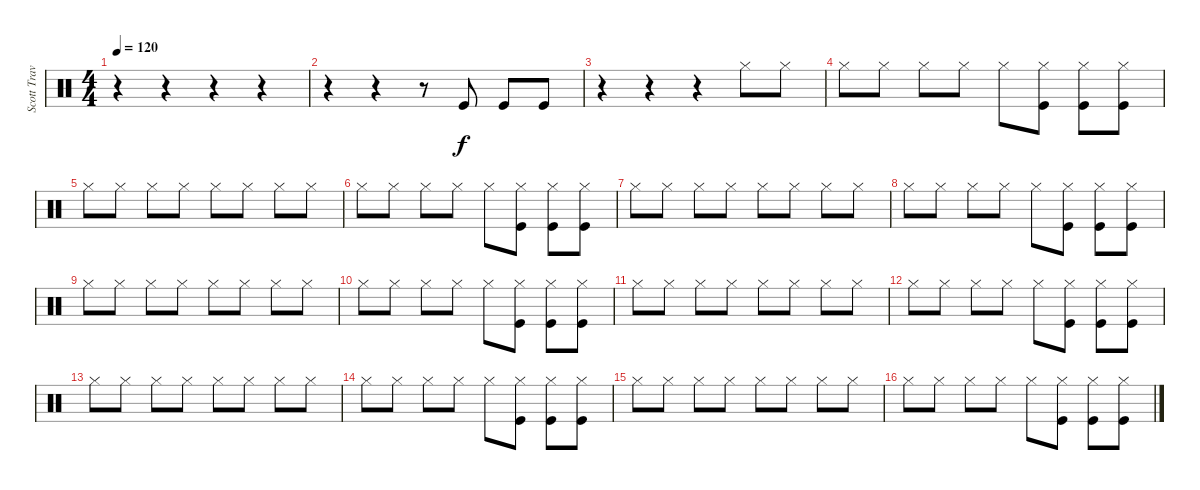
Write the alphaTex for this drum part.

\track ("Scott Travis" "Scott Trav") {instrument percussion}
\staff {score}
\articulation defaults
\ts (4 4)
\tempo 120
\clef neutral
\ks c
r.4{dy f} r.4 r.4 r.4 |
r.4 r.4 r.8 "Kick (hit)".8 "Kick (hit)".8 "Kick (hit)".8 |
r.4 r.4 r.4 "Hi-Hat (closed)".8 "Hi-Hat (closed)".8 |
"Hi-Hat (closed)".8 "Hi-Hat (closed)".8 "Hi-Hat (closed)".8 "Hi-Hat (closed)".8 "Hi-Hat (closed)".8 ("Kick (hit)" "Hi-Hat (closed)").8 ("Kick (hit)" "Hi-Hat (closed)").8 ("Kick (hit)" "Hi-Hat (closed)").8 |
"Hi-Hat (closed)".8 "Hi-Hat (closed)".8 "Hi-Hat (closed)".8 "Hi-Hat (closed)".8 "Hi-Hat (closed)".8 "Hi-Hat (closed)".8 "Hi-Hat (closed)".8 "Hi-Hat (closed)".8 |
"Hi-Hat (closed)".8 "Hi-Hat (closed)".8 "Hi-Hat (closed)".8 "Hi-Hat (closed)".8 "Hi-Hat (closed)".8 ("Kick (hit)" "Hi-Hat (closed)").8 ("Kick (hit)" "Hi-Hat (closed)").8 ("Kick (hit)" "Hi-Hat (closed)").8 |
"Hi-Hat (closed)".8 "Hi-Hat (closed)".8 "Hi-Hat (closed)".8 "Hi-Hat (closed)".8 "Hi-Hat (closed)".8 "Hi-Hat (closed)".8 "Hi-Hat (closed)".8 "Hi-Hat (closed)".8 |
"Hi-Hat (closed)".8 "Hi-Hat (closed)".8 "Hi-Hat (closed)".8 "Hi-Hat (closed)".8 "Hi-Hat (closed)".8 ("Kick (hit)" "Hi-Hat (closed)").8 ("Kick (hit)" "Hi-Hat (closed)").8 ("Kick (hit)" "Hi-Hat (closed)").8 |
"Hi-Hat (closed)".8 "Hi-Hat (closed)".8 "Hi-Hat (closed)".8 "Hi-Hat (closed)".8 "Hi-Hat (closed)".8 "Hi-Hat (closed)".8 "Hi-Hat (closed)".8 "Hi-Hat (closed)".8 |
"Hi-Hat (closed)".8 "Hi-Hat (closed)".8 "Hi-Hat (closed)".8 "Hi-Hat (closed)".8 "Hi-Hat (closed)".8 ("Kick (hit)" "Hi-Hat (closed)").8 ("Kick (hit)" "Hi-Hat (closed)").8 ("Kick (hit)" "Hi-Hat (closed)").8 |
"Hi-Hat (closed)".8 "Hi-Hat (closed)".8 "Hi-Hat (closed)".8 "Hi-Hat (closed)".8 "Hi-Hat (closed)".8 "Hi-Hat (closed)".8 "Hi-Hat (closed)".8 "Hi-Hat (closed)".8 |
"Hi-Hat (closed)".8 "Hi-Hat (closed)".8 "Hi-Hat (closed)".8 "Hi-Hat (closed)".8 "Hi-Hat (closed)".8 ("Kick (hit)" "Hi-Hat (closed)").8 ("Kick (hit)" "Hi-Hat (closed)").8 ("Kick (hit)" "Hi-Hat (closed)").8 |
"Hi-Hat (closed)".8 "Hi-Hat (closed)".8 "Hi-Hat (closed)".8 "Hi-Hat (closed)".8 "Hi-Hat (closed)".8 "Hi-Hat (closed)".8 "Hi-Hat (closed)".8 "Hi-Hat (closed)".8 |
"Hi-Hat (closed)".8 "Hi-Hat (closed)".8 "Hi-Hat (closed)".8 "Hi-Hat (closed)".8 "Hi-Hat (closed)".8 ("Kick (hit)" "Hi-Hat (closed)").8 ("Kick (hit)" "Hi-Hat (closed)").8 ("Kick (hit)" "Hi-Hat (closed)").8 |
"Hi-Hat (closed)".8 "Hi-Hat (closed)".8 "Hi-Hat (closed)".8 "Hi-Hat (closed)".8 "Hi-Hat (closed)".8 "Hi-Hat (closed)".8 "Hi-Hat (closed)".8 "Hi-Hat (closed)".8 |
"Hi-Hat (closed)".8 "Hi-Hat (closed)".8 "Hi-Hat (closed)".8 "Hi-Hat (closed)".8 "Hi-Hat (closed)".8 ("Kick (hit)" "Hi-Hat (closed)").8 ("Kick (hit)" "Hi-Hat (closed)").8 ("Kick (hit)" "Hi-Hat (closed)").8
